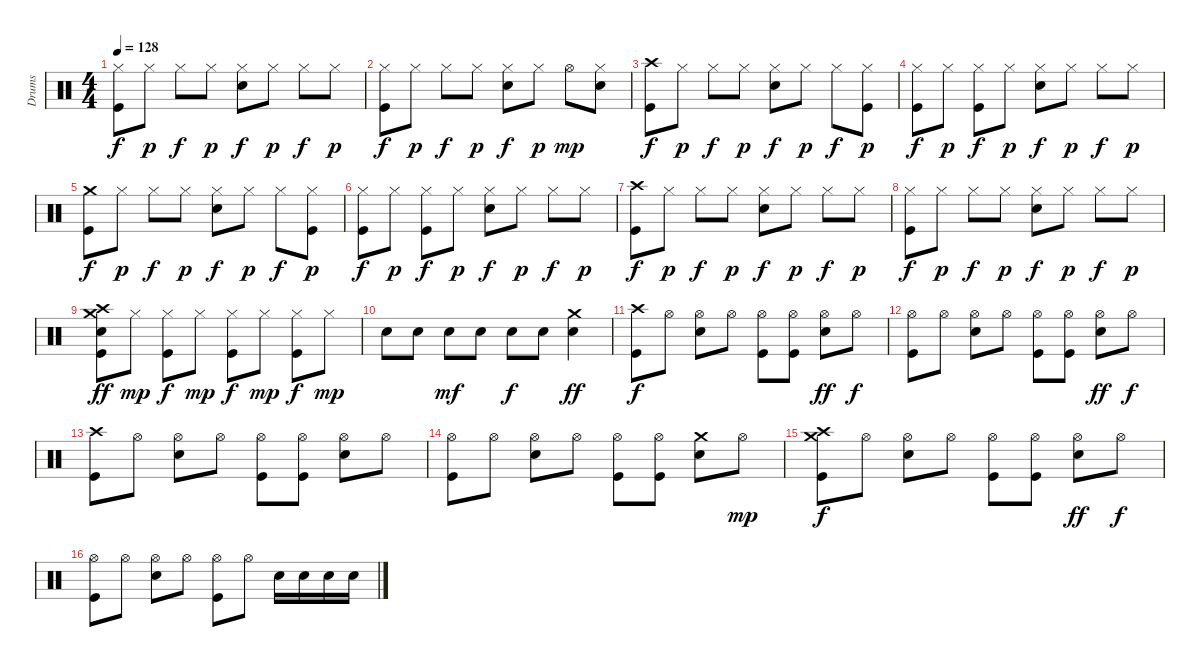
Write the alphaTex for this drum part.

\track ("Drums" "Drums") {instrument percussion}
\staff {score}
\articulation defaults
\ts (4 4)
\tempo 128
\clef neutral
\ks c
("Hi-Hat (closed)" "Kick (hit)").8{dy f} "Hi-Hat (closed)".8{dy p} "Hi-Hat (closed)".8{dy f} "Hi-Hat (closed)".8{dy p} ("Hi-Hat (closed)" "Snare (hit) 2").8{dy f} "Hi-Hat (closed)".8{dy p} "Hi-Hat (closed)".8{dy f} "Hi-Hat (closed)".8{dy p} |
("Hi-Hat (closed)" "Kick (hit)").8{dy f} "Hi-Hat (closed)".8{dy p} "Hi-Hat (closed)".8{dy f} "Hi-Hat (closed)".8{dy p} ("Hi-Hat (closed)" "Snare (hit) 2").8{dy f} "Hi-Hat (closed)".8{dy p} "Hi-Hat (open)".8{dy mp} ("Hi-Hat (closed)" "Snare (hit) 2").8 |
("Crash high (hit)" "Kick (hit)").8{dy f} "Hi-Hat (closed)".8{dy p} "Hi-Hat (closed)".8{dy f} "Hi-Hat (closed)".8{dy p} ("Hi-Hat (closed)" "Snare (hit) 2").8{dy f} "Hi-Hat (closed)".8{dy p} "Hi-Hat (closed)".8{dy f} ("Hi-Hat (closed)" "Kick (hit)").8{dy p} |
("Hi-Hat (closed)" "Kick (hit)").8{dy f} "Hi-Hat (closed)".8{dy p} ("Hi-Hat (closed)" "Kick (hit)").8{dy f} "Hi-Hat (closed)".8{dy p} ("Hi-Hat (closed)" "Snare (hit) 2").8{dy f} "Hi-Hat (closed)".8{dy p} "Hi-Hat (closed)".8{dy f} "Hi-Hat (closed)".8{dy p} |
("Crash medium (hit)" "Kick (hit)").8{dy f} "Hi-Hat (closed)".8{dy p} "Hi-Hat (closed)".8{dy f} "Hi-Hat (closed)".8{dy p} ("Hi-Hat (closed)" "Snare (hit) 2").8{dy f} "Hi-Hat (closed)".8{dy p} "Hi-Hat (closed)".8{dy f} ("Hi-Hat (closed)" "Kick (hit)").8{dy p} |
("Hi-Hat (closed)" "Kick (hit)").8{dy f} "Hi-Hat (closed)".8{dy p} ("Hi-Hat (closed)" "Kick (hit)").8{dy f} "Hi-Hat (closed)".8{dy p} ("Hi-Hat (closed)" "Snare (hit) 2").8{dy f} "Hi-Hat (closed)".8{dy p} "Hi-Hat (closed)".8{dy f} "Hi-Hat (closed)".8{dy p} |
("Crash high (hit)" "Kick (hit)").8{dy f} "Hi-Hat (closed)".8{dy p} "Hi-Hat (closed)".8{dy f} "Hi-Hat (closed)".8{dy p} ("Hi-Hat (closed)" "Snare (hit) 2").8{dy f} "Hi-Hat (closed)".8{dy p} "Hi-Hat (closed)".8{dy f} "Hi-Hat (closed)".8{dy p} |
("Hi-Hat (closed)" "Kick (hit)").8{dy f} "Hi-Hat (closed)".8{dy p} "Hi-Hat (closed)".8{dy f} "Hi-Hat (closed)".8{dy p} ("Hi-Hat (closed)" "Snare (hit) 2").8{dy f} "Hi-Hat (closed)".8{dy p} "Hi-Hat (closed)".8{dy f} "Hi-Hat (closed)".8{dy p} |
("Crash high (hit)" "Crash medium (hit)" "Snare (hit) 2" "Kick (hit)").8{dy ff} "Hi-Hat (closed)".8{dy mp} ("Hi-Hat (closed)" "Kick (hit)").8{dy f} "Hi-Hat (closed)".8{dy mp} ("Hi-Hat (closed)" "Kick (hit)").8{dy f} "Hi-Hat (closed)".8{dy mp} ("Hi-Hat (closed)" "Kick (hit)").8{dy f} "Hi-Hat (closed)".8{dy mp} |
"Snare (hit) 2".8 "Snare (hit) 2".8 "Snare (hit) 2".8{dy mf} "Snare (hit) 2".8 "Snare (hit) 2".8{dy f} "Snare (hit) 2".8 ("Crash medium (hit)" "Snare (hit) 2").4{dy ff} |
("Crash high (hit)" "Kick (hit)").8{dy f} "Hi-Hat (open)".8 ("Hi-Hat (open)" "Snare (hit) 2").8 "Hi-Hat (open)".8 ("Hi-Hat (open)" "Kick (hit)").8 ("Hi-Hat (open)" "Kick (hit)").8 ("Hi-Hat (open)" "Snare (hit) 2").8{dy ff} "Hi-Hat (open)".8{dy f} |
("Hi-Hat (open)" "Kick (hit)").8 "Hi-Hat (open)".8 ("Hi-Hat (open)" "Snare (hit) 2").8 "Hi-Hat (open)".8 ("Hi-Hat (open)" "Kick (hit)").8 ("Hi-Hat (open)" "Kick (hit)").8 ("Hi-Hat (open)" "Snare (hit) 2").8{dy ff} "Hi-Hat (open)".8{dy f} |
("Crash high (hit)" "Kick (hit)").8 "Hi-Hat (open)".8 ("Hi-Hat (open)" "Snare (hit) 2").8 "Hi-Hat (open)".8 ("Hi-Hat (open)" "Kick (hit)").8 ("Hi-Hat (open)" "Kick (hit)").8 ("Hi-Hat (open)" "Snare (hit) 2").8 "Hi-Hat (open)".8 |
("Hi-Hat (open)" "Kick (hit)").8 "Hi-Hat (open)".8 ("Hi-Hat (open)" "Snare (hit) 2").8 "Hi-Hat (open)".8 ("Hi-Hat (open)" "Kick (hit)").8 ("Hi-Hat (open)" "Kick (hit)").8 ("Crash medium (hit)" "Snare (hit) 2").8 "Hi-Hat (open)".8{dy mp} |
("Crash high (hit)" "Crash medium (hit)" "Kick (hit)").8{dy f} "Hi-Hat (open)".8 ("Hi-Hat (open)" "Snare (hit) 2").8 "Hi-Hat (open)".8 ("Hi-Hat (open)" "Kick (hit)").8 ("Hi-Hat (open)" "Kick (hit)").8 ("Hi-Hat (open)" "Snare (hit) 2").8{dy ff} "Hi-Hat (open)".8{dy f} |
("Hi-Hat (open)" "Kick (hit)").8 "Hi-Hat (open)".8 ("Hi-Hat (open)" "Snare (hit) 2").8 "Hi-Hat (open)".8 ("Hi-Hat (open)" "Kick (hit)").8 "Hi-Hat (open)".8 "Snare (hit) 2".16 "Snare (hit) 2".16 "Snare (hit) 2".16 "Snare (hit) 2".16
